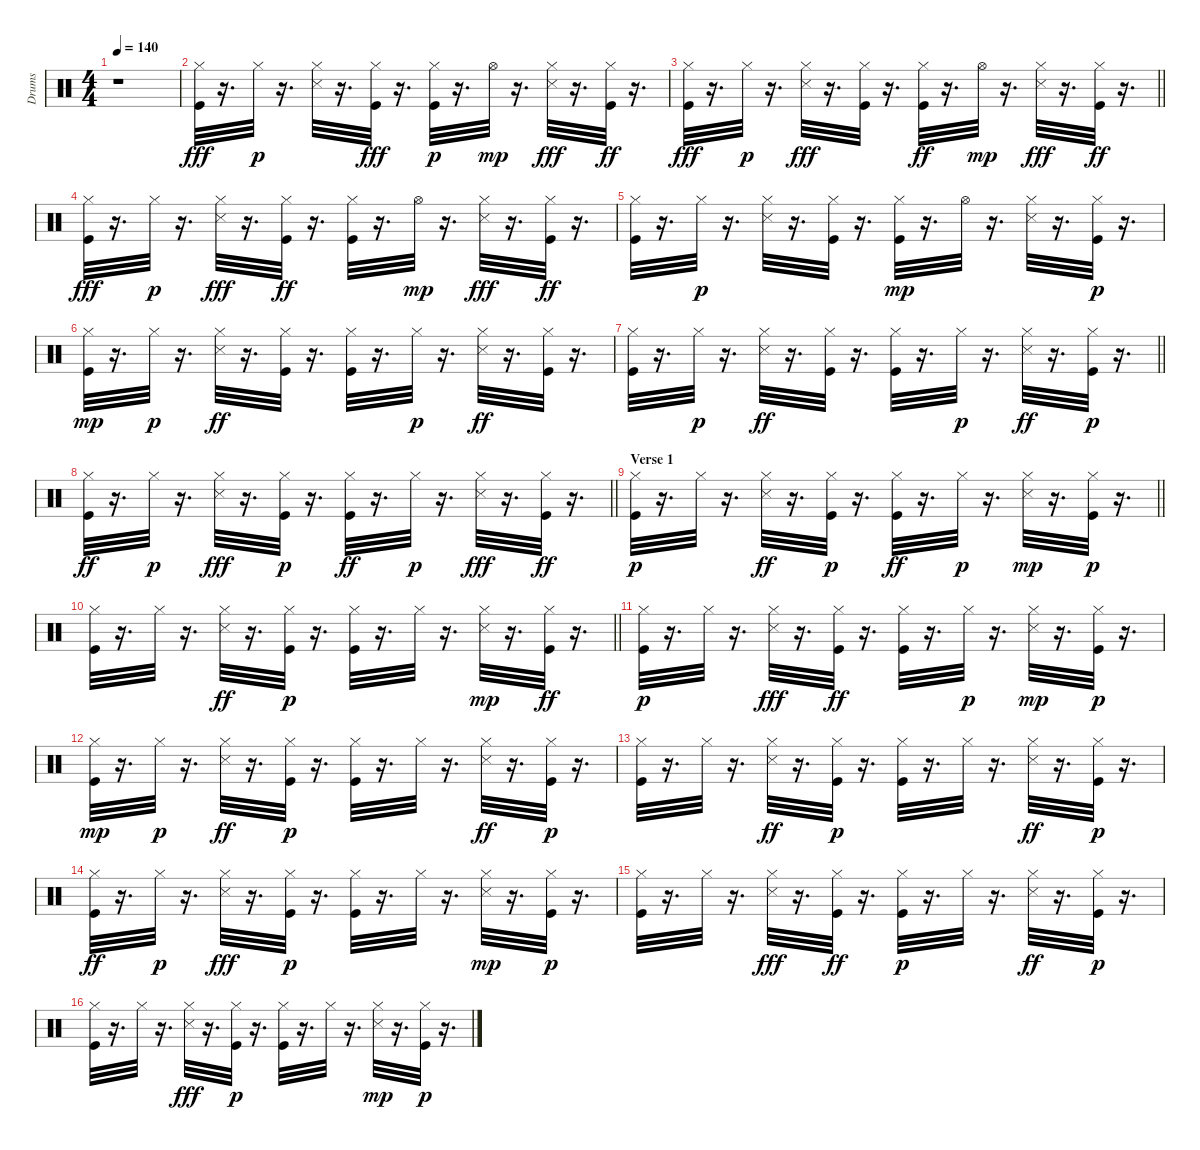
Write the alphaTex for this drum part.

\track ("Drums" "Drums") {instrument percussion}
\staff {score}
\articulation defaults
\ts (4 4)
\tempo 140
\clef neutral
\ks c
r.1{dy fff} |
("Hi-Hat (closed)" "Kick (hit)").32 r.16{d} "Hi-Hat (closed)".32{dy p} r.16{d} ("Snare (side stick) 3" "Hi-Hat (closed)").32 r.16{d} ("Hi-Hat (closed)" "Kick (hit)").32{dy fff} r.16{d} ("Kick (hit)" "Hi-Hat (closed)").32{dy p} r.16{d} "Hi-Hat (open)".32{dy mp} r.16{d} ("Hi-Hat (closed)" "Snare (side stick) 3").32{dy fff} r.16{d} ("Hi-Hat (closed)" "Kick (hit)").32{dy ff} r.16{d} |
\barLineRight lightlight
("Hi-Hat (closed)" "Kick (hit)").32{dy fff} r.16{d} "Hi-Hat (closed)".32{dy p} r.16{d} ("Hi-Hat (closed)" "Snare (side stick) 3").32{dy fff} r.16{d} ("Hi-Hat (closed)" "Kick (hit)").32 r.16{d} ("Hi-Hat (closed)" "Kick (hit)").32{dy ff} r.16{d} "Hi-Hat (open)".32{dy mp} r.16{d} ("Hi-Hat (closed)" "Snare (side stick) 3").32{dy fff} r.16{d} ("Hi-Hat (closed)" "Kick (hit)").32{dy ff} r.16{d} |
\section ("" "")
("Hi-Hat (closed)" "Kick (hit)").32{dy fff} r.16{d} "Hi-Hat (closed)".32{dy p} r.16{d} ("Hi-Hat (closed)" "Snare (side stick) 3").32{dy fff} r.16{d} ("Hi-Hat (closed)" "Kick (hit)").32{dy ff} r.16{d} ("Hi-Hat (closed)" "Kick (hit)").32 r.16{d} "Hi-Hat (open)".32{dy mp} r.16{d} ("Hi-Hat (closed)" "Snare (side stick) 3").32{dy fff} r.16{d} ("Hi-Hat (closed)" "Kick (hit)").32{dy ff} r.16{d} |
("Hi-Hat (closed)" "Kick (hit)").32 r.16{d} "Hi-Hat (closed)".32{dy p} r.16{d} ("Snare (side stick) 3" "Hi-Hat (closed)").32 r.16{d} ("Kick (hit)" "Hi-Hat (closed)").32 r.16{d} ("Kick (hit)" "Hi-Hat (closed)").32{dy mp} r.16{d} "Hi-Hat (open)".32 r.16{d} ("Snare (side stick) 3" "Hi-Hat (closed)").32 r.16{d} ("Kick (hit)" "Hi-Hat (closed)").32{dy p} r.16{d} |
("Kick (hit)" "Hi-Hat (closed)").32{dy mp} r.16{d} "Hi-Hat (closed)".32{dy p} r.16{d} ("Hi-Hat (closed)" "Snare (side stick) 3").32{dy ff} r.16{d} ("Hi-Hat (closed)" "Kick (hit)").32 r.16{d} ("Hi-Hat (closed)" "Kick (hit)").32 r.16{d} "Hi-Hat (closed)".32{dy p} r.16{d} ("Hi-Hat (closed)" "Snare (side stick) 3").32{dy ff} r.16{d} ("Hi-Hat (closed)" "Kick (hit)").32 r.16{d} |
\barLineRight lightlight
("Hi-Hat (closed)" "Kick (hit)").32 r.16{d} "Hi-Hat (closed)".32{dy p} r.16{d} ("Hi-Hat (closed)" "Snare (side stick) 3").32{dy ff} r.16{d} ("Hi-Hat (closed)" "Kick (hit)").32 r.16{d} ("Hi-Hat (closed)" "Kick (hit)").32 r.16{d} "Hi-Hat (closed)".32{dy p} r.16{d} ("Hi-Hat (closed)" "Snare (side stick) 3").32{dy ff} r.16{d} ("Hi-Hat (closed)" "Kick (hit)").32{dy p} r.16{d} |
\section ("" "")
\barLineRight lightlight
("Hi-Hat (closed)" "Kick (hit)").32{dy ff} r.16{d} "Hi-Hat (closed)".32{dy p} r.16{d} ("Hi-Hat (closed)" "Snare (side stick) 3").32{dy fff} r.16{d} ("Hi-Hat (closed)" "Kick (hit)").32{dy p} r.16{d} ("Hi-Hat (closed)" "Kick (hit)").32{dy ff} r.16{d} "Hi-Hat (closed)".32{dy p} r.16{d} ("Hi-Hat (closed)" "Snare (side stick) 3").32{dy fff} r.16{d} ("Hi-Hat (closed)" "Kick (hit)").32{dy ff} r.16{d} |
\section ("" "Verse 1")
\barLineRight lightlight
("Hi-Hat (closed)" "Kick (hit)").32{dy p} r.16{d} "Hi-Hat (closed)".32 r.16{d} ("Hi-Hat (closed)" "Snare (side stick) 3").32{dy ff} r.16{d} ("Hi-Hat (closed)" "Kick (hit)").32{dy p} r.16{d} ("Hi-Hat (closed)" "Kick (hit)").32{dy ff} r.16{d} "Hi-Hat (closed)".32{dy p} r.16{d} ("Snare (side stick) 3" "Hi-Hat (closed)").32{dy mp} r.16{d} ("Kick (hit)" "Hi-Hat (closed)").32{dy p} r.16{d} |
\section ("" "")
\barLineRight lightlight
("Kick (hit)" "Hi-Hat (closed)").32 r.16{d} "Hi-Hat (closed)".32 r.16{d} ("Hi-Hat (closed)" "Snare (side stick) 3").32{dy ff} r.16{d} ("Kick (hit)" "Hi-Hat (closed)").32{dy p} r.16{d} ("Kick (hit)" "Hi-Hat (closed)").32 r.16{d} "Hi-Hat (closed)".32 r.16{d} ("Snare (side stick) 3" "Hi-Hat (closed)").32{dy mp} r.16{d} ("Hi-Hat (closed)" "Kick (hit)").32{dy ff} r.16{d} |
\section ("" "")
("Hi-Hat (closed)" "Kick (hit)").32{dy p} r.16{d} "Hi-Hat (closed)".32 r.16{d} ("Hi-Hat (closed)" "Snare (side stick) 3").32{dy fff} r.16{d} ("Hi-Hat (closed)" "Kick (hit)").32{dy ff} r.16{d} ("Hi-Hat (closed)" "Kick (hit)").32 r.16{d} "Hi-Hat (closed)".32{dy p} r.16{d} ("Snare (side stick) 3" "Hi-Hat (closed)").32{dy mp} r.16{d} ("Kick (hit)" "Hi-Hat (closed)").32{dy p} r.16{d} |
("Kick (hit)" "Hi-Hat (closed)").32{dy mp} r.16{d} "Hi-Hat (closed)".32{dy p} r.16{d} ("Hi-Hat (closed)" "Snare (side stick) 3").32{dy ff} r.16{d} ("Hi-Hat (closed)" "Kick (hit)").32{dy p} r.16{d} ("Hi-Hat (closed)" "Kick (hit)").32 r.16{d} "Hi-Hat (closed)".32 r.16{d} ("Hi-Hat (closed)" "Snare (side stick) 3").32{dy ff} r.16{d} ("Hi-Hat (closed)" "Kick (hit)").32{dy p} r.16{d} |
("Hi-Hat (closed)" "Kick (hit)").32 r.16{d} "Hi-Hat (closed)".32 r.16{d} ("Hi-Hat (closed)" "Snare (side stick) 3").32{dy ff} r.16{d} ("Kick (hit)" "Hi-Hat (closed)").32{dy p} r.16{d} ("Kick (hit)" "Hi-Hat (closed)").32 r.16{d} "Hi-Hat (closed)".32 r.16{d} ("Hi-Hat (closed)" "Snare (side stick) 3").32{dy ff} r.16{d} ("Hi-Hat (closed)" "Kick (hit)").32{dy p} r.16{d} |
("Hi-Hat (closed)" "Kick (hit)").32{dy ff} r.16{d} "Hi-Hat (closed)".32{dy p} r.16{d} ("Hi-Hat (closed)" "Snare (side stick) 3").32{dy fff} r.16{d} ("Hi-Hat (closed)" "Kick (hit)").32{dy p} r.16{d} ("Hi-Hat (closed)" "Kick (hit)").32 r.16{d} "Hi-Hat (closed)".32 r.16{d} ("Snare (side stick) 3" "Hi-Hat (closed)").32{dy mp} r.16{d} ("Hi-Hat (closed)" "Kick (hit)").32{dy p} r.16{d} |
("Hi-Hat (closed)" "Kick (hit)").32 r.16{d} "Hi-Hat (closed)".32 r.16{d} ("Hi-Hat (closed)" "Snare (side stick) 3").32{dy fff} r.16{d} ("Hi-Hat (closed)" "Kick (hit)").32{dy ff} r.16{d} ("Hi-Hat (closed)" "Kick (hit)").32{dy p} r.16{d} "Hi-Hat (closed)".32 r.16{d} ("Hi-Hat (closed)" "Snare (side stick) 3").32{dy ff} r.16{d} ("Hi-Hat (closed)" "Kick (hit)").32{dy p} r.16{d} |
("Hi-Hat (closed)" "Kick (hit)").32 r.16{d} "Hi-Hat (closed)".32 r.16{d} ("Hi-Hat (closed)" "Snare (side stick) 3").32{dy fff} r.16{d} ("Hi-Hat (closed)" "Kick (hit)").32{dy p} r.16{d} ("Kick (hit)" "Hi-Hat (closed)").32 r.16{d} "Hi-Hat (closed)".32 r.16{d} ("Snare (side stick) 3" "Hi-Hat (closed)").32{dy mp} r.16{d} ("Hi-Hat (closed)" "Kick (hit)").32{dy p} r.16{d}
